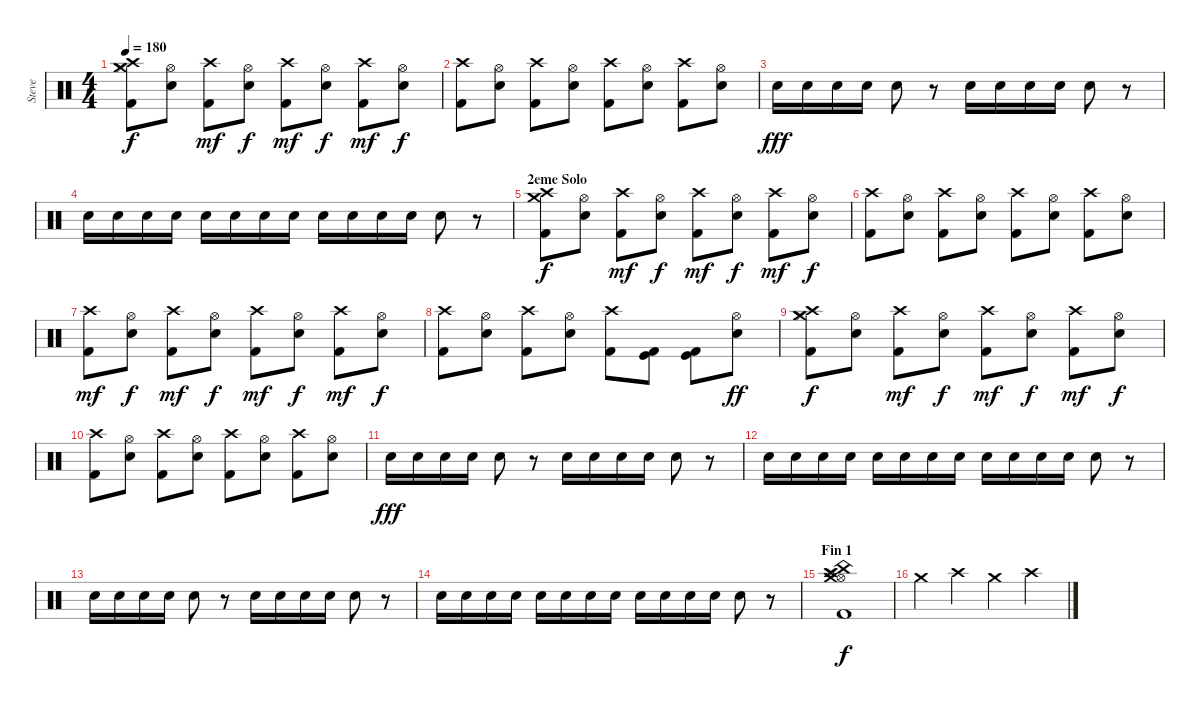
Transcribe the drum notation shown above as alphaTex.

\track ("Steve" "Steve") {instrument percussion}
\staff {score}
\articulation defaults
\ts (4 4)
\tempo 180
\clef neutral
\ks c
("Hi-Hat (closed)" "Crash medium (hit)" "Crash high (hit)" "Kick (hit) 2").8{dy f} ("Hi-Hat (open)" "Electric Snare (hit)").8 ("Crash high (hit)" "Kick (hit) 2").8{dy mf} ("Hi-Hat (open)" "Electric Snare (hit)").8{dy f} ("Crash high (hit)" "Kick (hit) 2").8{dy mf} ("Hi-Hat (open)" "Electric Snare (hit)").8{dy f} ("Crash high (hit)" "Kick (hit) 2").8{dy mf} ("Hi-Hat (open)" "Electric Snare (hit)").8{dy f} |
("Crash high (hit)" "Kick (hit) 2").8 ("Hi-Hat (open)" "Electric Snare (hit)").8 ("Crash high (hit)" "Kick (hit) 2").8 ("Hi-Hat (open)" "Electric Snare (hit)").8 ("Crash high (hit)" "Kick (hit) 2").8 ("Hi-Hat (open)" "Electric Snare (hit)").8 ("Crash high (hit)" "Kick (hit) 2").8 ("Hi-Hat (open)" "Electric Snare (hit)").8 |
"Electric Snare (hit)".16{dy fff} "Electric Snare (hit)".16 "Electric Snare (hit)".16 "Electric Snare (hit)".16 "Electric Snare (hit)".8 r.8 "Electric Snare (hit)".16 "Electric Snare (hit)".16 "Electric Snare (hit)".16 "Electric Snare (hit)".16 "Electric Snare (hit)".8 r.8 |
"Electric Snare (hit)".16 "Electric Snare (hit)".16 "Electric Snare (hit)".16 "Electric Snare (hit)".16 "Electric Snare (hit)".16 "Electric Snare (hit)".16 "Electric Snare (hit)".16 "Electric Snare (hit)".16 "Electric Snare (hit)".16 "Electric Snare (hit)".16 "Electric Snare (hit)".16 "Electric Snare (hit)".16 "Electric Snare (hit)".8 r.8 |
\section ("" "2eme Solo")
("Crash medium (hit)" "Crash high (hit)" "Kick (hit) 2").8{dy f} ("Hi-Hat (open)" "Electric Snare (hit)").8 ("Crash high (hit)" "Kick (hit) 2").8{dy mf} ("Hi-Hat (open)" "Electric Snare (hit)").8{dy f} ("Crash high (hit)" "Kick (hit) 2").8{dy mf} ("Hi-Hat (open)" "Electric Snare (hit)").8{dy f} ("Crash high (hit)" "Kick (hit) 2").8{dy mf} ("Hi-Hat (open)" "Electric Snare (hit)").8{dy f} |
("Crash high (hit)" "Kick (hit) 2").8 ("Hi-Hat (open)" "Electric Snare (hit)").8 ("Crash high (hit)" "Kick (hit) 2").8 ("Hi-Hat (open)" "Electric Snare (hit)").8 ("Crash high (hit)" "Kick (hit) 2").8 ("Hi-Hat (open)" "Electric Snare (hit)").8 ("Crash high (hit)" "Kick (hit) 2").8 ("Hi-Hat (open)" "Electric Snare (hit)").8 |
("Crash high (hit)" "Kick (hit) 2").8{dy mf} ("Hi-Hat (open)" "Electric Snare (hit)").8{dy f} ("Crash high (hit)" "Kick (hit) 2").8{dy mf} ("Hi-Hat (open)" "Electric Snare (hit)").8{dy f} ("Crash high (hit)" "Kick (hit) 2").8{dy mf} ("Hi-Hat (open)" "Electric Snare (hit)").8{dy f} ("Crash high (hit)" "Kick (hit) 2").8{dy mf} ("Hi-Hat (open)" "Electric Snare (hit)").8{dy f} |
("Crash high (hit)" "Kick (hit) 2").8 ("Hi-Hat (open)" "Electric Snare (hit)").8 ("Crash high (hit)" "Kick (hit) 2").8 ("Hi-Hat (open)" "Electric Snare (hit)").8 ("Crash high (hit)" "Kick (hit) 2").8 ("Kick (hit) 2" "Kick (hit)").8 ("Kick (hit) 2" "Kick (hit)").8 ("Hi-Hat (open)" "Electric Snare (hit)").8{dy ff} |
("Hi-Hat (closed)" "Crash medium (hit)" "Crash high (hit)" "Kick (hit) 2").8{dy f} ("Hi-Hat (open)" "Electric Snare (hit)").8 ("Crash high (hit)" "Kick (hit) 2").8{dy mf} ("Hi-Hat (open)" "Electric Snare (hit)").8{dy f} ("Crash high (hit)" "Kick (hit) 2").8{dy mf} ("Hi-Hat (open)" "Electric Snare (hit)").8{dy f} ("Crash high (hit)" "Kick (hit) 2").8{dy mf} ("Hi-Hat (open)" "Electric Snare (hit)").8{dy f} |
("Crash high (hit)" "Kick (hit) 2").8 ("Hi-Hat (open)" "Electric Snare (hit)").8 ("Crash high (hit)" "Kick (hit) 2").8 ("Hi-Hat (open)" "Electric Snare (hit)").8 ("Crash high (hit)" "Kick (hit) 2").8 ("Hi-Hat (open)" "Electric Snare (hit)").8 ("Crash high (hit)" "Kick (hit) 2").8 ("Hi-Hat (open)" "Electric Snare (hit)").8 |
"Electric Snare (hit)".16{dy fff} "Electric Snare (hit)".16 "Electric Snare (hit)".16 "Electric Snare (hit)".16 "Electric Snare (hit)".8 r.8 "Electric Snare (hit)".16 "Electric Snare (hit)".16 "Electric Snare (hit)".16 "Electric Snare (hit)".16 "Electric Snare (hit)".8 r.8 |
"Electric Snare (hit)".16 "Electric Snare (hit)".16 "Electric Snare (hit)".16 "Electric Snare (hit)".16 "Electric Snare (hit)".16 "Electric Snare (hit)".16 "Electric Snare (hit)".16 "Electric Snare (hit)".16 "Electric Snare (hit)".16 "Electric Snare (hit)".16 "Electric Snare (hit)".16 "Electric Snare (hit)".16 "Electric Snare (hit)".8 r.8 |
"Electric Snare (hit)".16 "Electric Snare (hit)".16 "Electric Snare (hit)".16 "Electric Snare (hit)".16 "Electric Snare (hit)".8 r.8 "Electric Snare (hit)".16 "Electric Snare (hit)".16 "Electric Snare (hit)".16 "Electric Snare (hit)".16 "Electric Snare (hit)".8 r.8 |
"Electric Snare (hit)".16 "Electric Snare (hit)".16 "Electric Snare (hit)".16 "Electric Snare (hit)".16 "Electric Snare (hit)".16 "Electric Snare (hit)".16 "Electric Snare (hit)".16 "Electric Snare (hit)".16 "Electric Snare (hit)".16 "Electric Snare (hit)".16 "Electric Snare (hit)".16 "Electric Snare (hit)".16 "Electric Snare (hit)".8 r.8 |
\section ("" "Fin 1")
("China (hit)" "Hi-Hat (open)" "Crash medium (hit)" "Crash high (hit)" "Splash (hit)" "Kick (hit) 2").1{dy f} |
"Crash medium (hit)".4 "Crash high (hit)".4 "Crash medium (hit)".4 "Crash high (hit)".4
